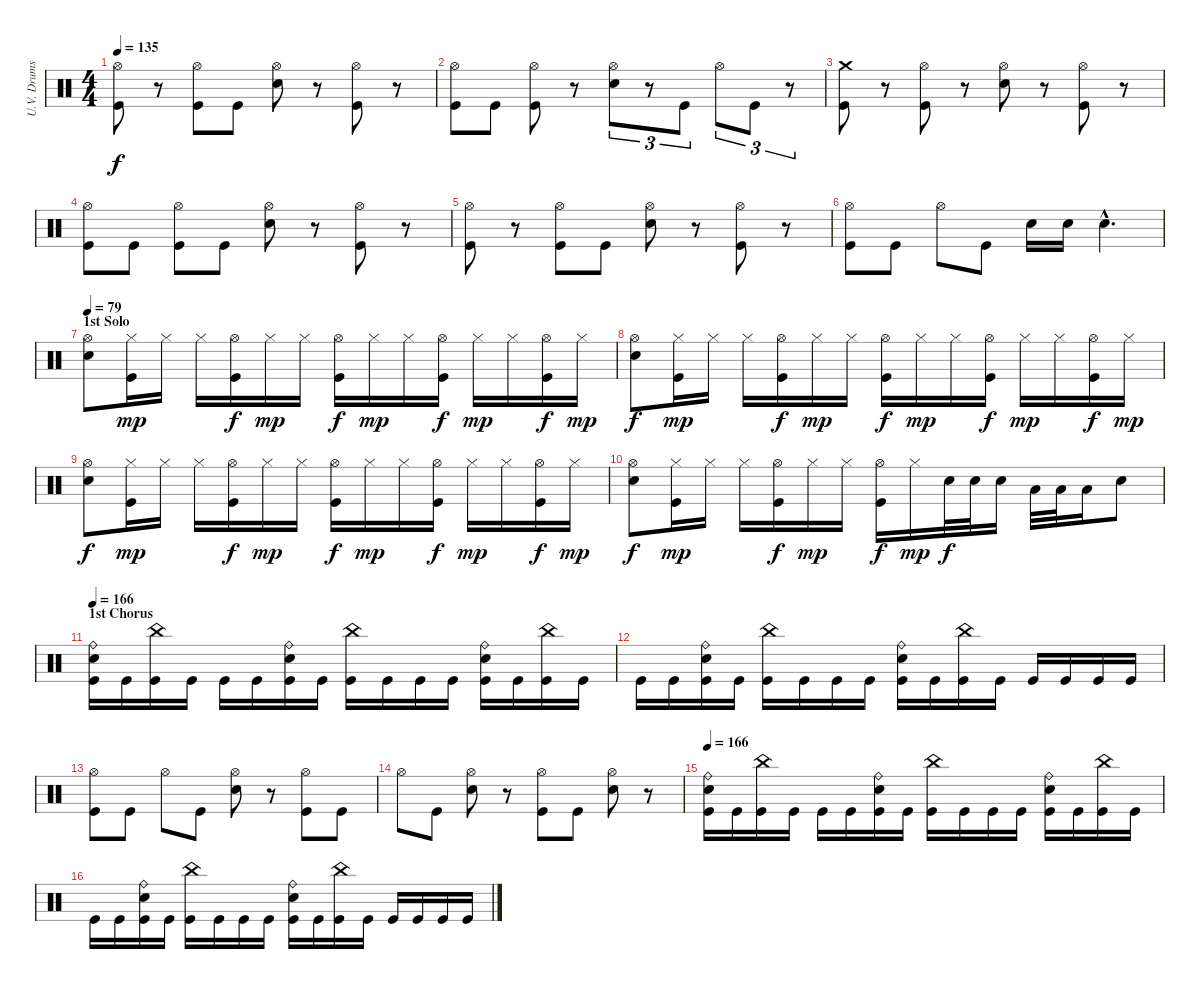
\track ("U.V. Drums" "U.V. Drums") {instrument percussion}
\staff {score}
\articulation defaults
\ts (4 4)
\tempo 135
\clef neutral
\ks c
("Hi-Hat (open)" "Kick (hit)").8{dy f} r.8 ("Hi-Hat (open)" "Kick (hit)").8 "Kick (hit)".8 ("Hi-Hat (open)" "Electric Snare (hit)").8 r.8 ("Hi-Hat (open)" "Kick (hit)").8 r.8 |
("Hi-Hat (open)" "Kick (hit)").8 "Kick (hit)".8 ("Hi-Hat (open)" "Kick (hit)").8 r.8 ("Hi-Hat (open)" "Electric Snare (hit)").8{tu (3 2)} r.8{tu (3 2)} "Kick (hit)".8{tu (3 2)} "Hi-Hat (open)".8{tu (3 2)} "Kick (hit)".8{tu (3 2)} r.8{tu (3 2)} |
("Crash medium (hit)" "Kick (hit)").8 r.8 ("Hi-Hat (open)" "Kick (hit)").8 r.8 ("Hi-Hat (open)" "Electric Snare (hit)").8 r.8 ("Hi-Hat (open)" "Kick (hit)").8 r.8 |
("Hi-Hat (open)" "Kick (hit)").8 "Kick (hit)".8 ("Hi-Hat (open)" "Kick (hit)").8 "Kick (hit)".8 ("Hi-Hat (open)" "Electric Snare (hit)").8 r.8 ("Hi-Hat (open)" "Kick (hit)").8 r.8 |
("Hi-Hat (open)" "Kick (hit)").8 r.8 ("Hi-Hat (open)" "Kick (hit)").8 "Kick (hit)".8 ("Hi-Hat (open)" "Electric Snare (hit)").8 r.8 ("Hi-Hat (open)" "Kick (hit)").8 r.8 |
("Hi-Hat (open)" "Kick (hit)").8 "Kick (hit)".8 "Hi-Hat (open)".8 "Kick (hit)".8 "Electric Snare (hit)".16 "Electric Snare (hit)".16 "Electric Snare (hit)"{hac}.4{d} |
\section ("" "1st Solo")
\tempo 79
("Hi-Hat (open)" "Electric Snare (hit)").8 ("Hi-Hat (closed)" "Kick (hit)").16{dy mp} "Hi-Hat (closed)".16 "Hi-Hat (closed)".16 ("Hi-Hat (open)" "Kick (hit)").16{dy f} "Hi-Hat (closed)".16{dy mp} "Hi-Hat (closed)".16 ("Hi-Hat (open)" "Kick (hit)").16{dy f} "Hi-Hat (closed)".16{dy mp} "Hi-Hat (closed)".16 ("Hi-Hat (open)" "Kick (hit)").16{dy f} "Hi-Hat (closed)".16{dy mp} "Hi-Hat (closed)".16 ("Hi-Hat (open)" "Kick (hit)").16{dy f} "Hi-Hat (closed)".16{dy mp} |
("Hi-Hat (open)" "Electric Snare (hit)").8{dy f} ("Hi-Hat (closed)" "Kick (hit)").16{dy mp} "Hi-Hat (closed)".16 "Hi-Hat (closed)".16 ("Hi-Hat (open)" "Kick (hit)").16{dy f} "Hi-Hat (closed)".16{dy mp} "Hi-Hat (closed)".16 ("Hi-Hat (open)" "Kick (hit)").16{dy f} "Hi-Hat (closed)".16{dy mp} "Hi-Hat (closed)".16 ("Hi-Hat (open)" "Kick (hit)").16{dy f} "Hi-Hat (closed)".16{dy mp} "Hi-Hat (closed)".16 ("Hi-Hat (open)" "Kick (hit)").16{dy f} "Hi-Hat (closed)".16{dy mp} |
("Hi-Hat (open)" "Electric Snare (hit)").8{dy f} ("Hi-Hat (closed)" "Kick (hit)").16{dy mp} "Hi-Hat (closed)".16 "Hi-Hat (closed)".16 ("Hi-Hat (open)" "Kick (hit)").16{dy f} "Hi-Hat (closed)".16{dy mp} "Hi-Hat (closed)".16 ("Hi-Hat (open)" "Kick (hit)").16{dy f} "Hi-Hat (closed)".16{dy mp} "Hi-Hat (closed)".16 ("Hi-Hat (open)" "Kick (hit)").16{dy f} "Hi-Hat (closed)".16{dy mp} "Hi-Hat (closed)".16 ("Hi-Hat (open)" "Kick (hit)").16{dy f} "Hi-Hat (closed)".16{dy mp} |
("Hi-Hat (open)" "Electric Snare (hit)").8{dy f} ("Hi-Hat (closed)" "Kick (hit)").16{dy mp} "Hi-Hat (closed)".16 "Hi-Hat (closed)".16 ("Hi-Hat (open)" "Kick (hit)").16{dy f} "Hi-Hat (closed)".16{dy mp} "Hi-Hat (closed)".16 ("Hi-Hat (open)" "Kick (hit)").16{dy f} "Hi-Hat (closed)".16{dy mp} "Electric Snare (hit)".32{dy f} "Electric Snare (hit)".32 "Electric Snare (hit)".16 "Low Tom (hit)".32 "Low Tom (hit)".32 "Low Tom (hit)".16 "Electric Snare (hit)".8 |
\section ("" "1st Chorus")
\tempo 166
("Ride (bell)" "Electric Snare (hit)" "Kick (hit)").16 "Kick (hit)".16 ("China (hit)" "Kick (hit)").16 "Kick (hit)".16 "Kick (hit)".16 "Kick (hit)".16 ("Ride (bell)" "Electric Snare (hit)" "Kick (hit)").16 "Kick (hit)".16 ("China (hit)" "Kick (hit)").16 "Kick (hit)".16 "Kick (hit)".16 "Kick (hit)".16 ("Ride (bell)" "Electric Snare (hit)" "Kick (hit)").16 "Kick (hit)".16 ("China (hit)" "Kick (hit)").16 "Kick (hit)".16 |
"Kick (hit)".16 "Kick (hit)".16 ("Ride (bell)" "Electric Snare (hit)" "Kick (hit)").16 "Kick (hit)".16 ("China (hit)" "Kick (hit)").16 "Kick (hit)".16 "Kick (hit)".16 "Kick (hit)".16 ("Ride (bell)" "Electric Snare (hit)" "Kick (hit)").16 "Kick (hit)".16 ("China (hit)" "Kick (hit)").16 "Kick (hit)".16 "Kick (hit)".16 "Kick (hit)".16 "Kick (hit)".16 "Kick (hit)".16 |
("Hi-Hat (open)" "Kick (hit)").8 "Kick (hit)".8 "Hi-Hat (open)".8 "Kick (hit)".8 ("Hi-Hat (open)" "Electric Snare (hit)").8 r.8 ("Hi-Hat (open)" "Kick (hit)").8 "Kick (hit)".8 |
"Hi-Hat (open)".8 "Kick (hit)".8 ("Hi-Hat (open)" "Electric Snare (hit)").8 r.8 ("Hi-Hat (open)" "Kick (hit)").8 "Kick (hit)".8 ("Hi-Hat (open)" "Electric Snare (hit)").8 r.8 |
\tempo 166
("Ride (bell)" "Electric Snare (hit)" "Kick (hit)").16 "Kick (hit)".16 ("China (hit)" "Kick (hit)").16 "Kick (hit)".16 "Kick (hit)".16 "Kick (hit)".16 ("Ride (bell)" "Electric Snare (hit)" "Kick (hit)").16 "Kick (hit)".16 ("China (hit)" "Kick (hit)").16 "Kick (hit)".16 "Kick (hit)".16 "Kick (hit)".16 ("Ride (bell)" "Electric Snare (hit)" "Kick (hit)").16 "Kick (hit)".16 ("China (hit)" "Kick (hit)").16 "Kick (hit)".16 |
"Kick (hit)".16 "Kick (hit)".16 ("Ride (bell)" "Electric Snare (hit)" "Kick (hit)").16 "Kick (hit)".16 ("China (hit)" "Kick (hit)").16 "Kick (hit)".16 "Kick (hit)".16 "Kick (hit)".16 ("Ride (bell)" "Electric Snare (hit)" "Kick (hit)").16 "Kick (hit)".16 ("China (hit)" "Kick (hit)").16 "Kick (hit)".16 "Kick (hit)".16 "Kick (hit)".16 "Kick (hit)".16 "Kick (hit)".16
